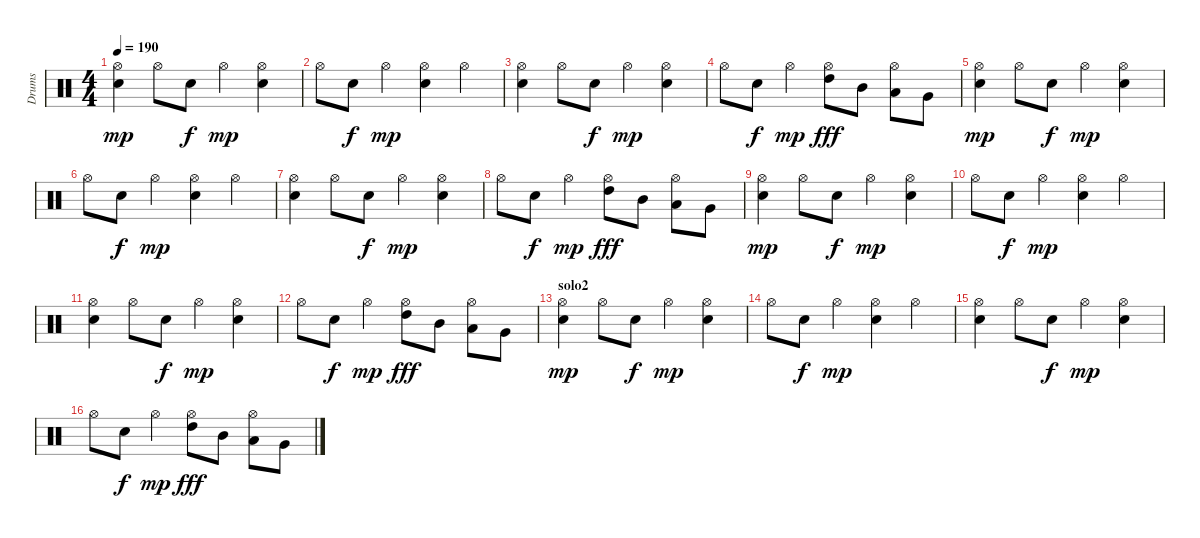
\track ("Drums" "Drums") {instrument percussion}
\staff {score}
\articulation defaults
\ts (4 4)
\tempo 190
\clef neutral
\ks c
("Hi-Hat (open)" "Snare (hit) 2").4{dy mp} "Hi-Hat (open)".8 "Snare (hit) 2".8{dy f} "Hi-Hat (open)".4{dy mp} ("Hi-Hat (open)" "Snare (hit) 2").4 |
"Hi-Hat (open)".8 "Snare (hit) 2".8{dy f} "Hi-Hat (open)".4{dy mp} ("Hi-Hat (open)" "Snare (hit) 2").4 "Hi-Hat (open)".4 |
("Hi-Hat (open)" "Snare (hit) 2").4 "Hi-Hat (open)".8 "Snare (hit) 2".8{dy f} "Hi-Hat (open)".4{dy mp} ("Hi-Hat (open)" "Snare (hit) 2").4 |
"Hi-Hat (open)".8 "Snare (hit) 2".8{dy f} "Hi-Hat (open)".4{dy mp} ("Hi-Hat (open)" "High Tom (hit)").8{dy fff} "Mid Tom (hit)".8 ("Hi-Hat (open)" "Low Tom (hit)").8 "Very Low Tom (hit)".8 |
("Hi-Hat (open)" "Snare (hit) 2").4{dy mp} "Hi-Hat (open)".8 "Snare (hit) 2".8{dy f} "Hi-Hat (open)".4{dy mp} ("Hi-Hat (open)" "Snare (hit) 2").4 |
"Hi-Hat (open)".8 "Snare (hit) 2".8{dy f} "Hi-Hat (open)".4{dy mp} ("Hi-Hat (open)" "Snare (hit) 2").4 "Hi-Hat (open)".4 |
("Hi-Hat (open)" "Snare (hit) 2").4 "Hi-Hat (open)".8 "Snare (hit) 2".8{dy f} "Hi-Hat (open)".4{dy mp} ("Hi-Hat (open)" "Snare (hit) 2").4 |
"Hi-Hat (open)".8 "Snare (hit) 2".8{dy f} "Hi-Hat (open)".4{dy mp} ("Hi-Hat (open)" "High Tom (hit)").8{dy fff} "Mid Tom (hit)".8 ("Hi-Hat (open)" "Low Tom (hit)").8 "Very Low Tom (hit)".8 |
("Hi-Hat (open)" "Snare (hit) 2").4{dy mp} "Hi-Hat (open)".8 "Snare (hit) 2".8{dy f} "Hi-Hat (open)".4{dy mp} ("Hi-Hat (open)" "Snare (hit) 2").4 |
"Hi-Hat (open)".8 "Snare (hit) 2".8{dy f} "Hi-Hat (open)".4{dy mp} ("Hi-Hat (open)" "Snare (hit) 2").4 "Hi-Hat (open)".4 |
("Hi-Hat (open)" "Snare (hit) 2").4 "Hi-Hat (open)".8 "Snare (hit) 2".8{dy f} "Hi-Hat (open)".4{dy mp} ("Hi-Hat (open)" "Snare (hit) 2").4 |
"Hi-Hat (open)".8 "Snare (hit) 2".8{dy f} "Hi-Hat (open)".4{dy mp} ("Hi-Hat (open)" "High Tom (hit)").8{dy fff} "Mid Tom (hit)".8 ("Hi-Hat (open)" "Low Tom (hit)").8 "Very Low Tom (hit)".8 |
\section ("" "solo2")
("Hi-Hat (open)" "Snare (hit) 2").4{dy mp} "Hi-Hat (open)".8 "Snare (hit) 2".8{dy f} "Hi-Hat (open)".4{dy mp} ("Hi-Hat (open)" "Snare (hit) 2").4 |
"Hi-Hat (open)".8 "Snare (hit) 2".8{dy f} "Hi-Hat (open)".4{dy mp} ("Hi-Hat (open)" "Snare (hit) 2").4 "Hi-Hat (open)".4 |
("Hi-Hat (open)" "Snare (hit) 2").4 "Hi-Hat (open)".8 "Snare (hit) 2".8{dy f} "Hi-Hat (open)".4{dy mp} ("Hi-Hat (open)" "Snare (hit) 2").4 |
"Hi-Hat (open)".8 "Snare (hit) 2".8{dy f} "Hi-Hat (open)".4{dy mp} ("Hi-Hat (open)" "High Tom (hit)").8{dy fff} "Mid Tom (hit)".8 ("Hi-Hat (open)" "Low Tom (hit)").8 "Very Low Tom (hit)".8
